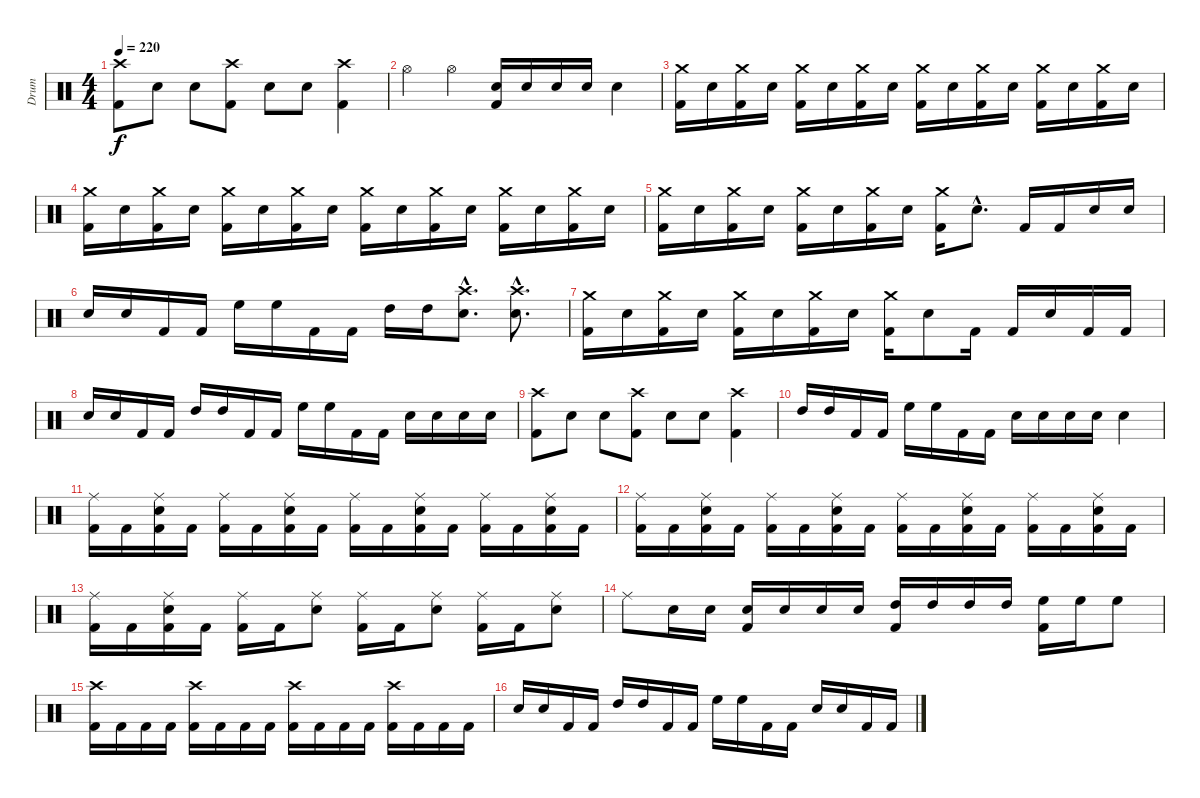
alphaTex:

\track ("Drum" "Drum") {instrument percussion}
\staff {score}
\articulation defaults
\ts (4 4)
\tempo 220
\clef neutral
\ks c
("Crash high (hit)" "Kick (hit) 2").8{dy f} "Electric Snare (hit)".8 "Electric Snare (hit)".8 ("Crash high (hit)" "Kick (hit) 2").8 "Electric Snare (hit)".8 "Electric Snare (hit)".8 ("Crash high (hit)" "Kick (hit) 2").4 |
"Hi-Hat (open)".4 "Hi-Hat (open)".4 ("Electric Snare (hit)" "Kick (hit) 2").16 "Electric Snare (hit)".16 "Electric Snare (hit)".16 "Electric Snare (hit)".16 "Electric Snare (hit)".4 |
("Crash medium (hit)" "Kick (hit) 2").16 "Electric Snare (hit)".16 ("Crash medium (hit)" "Kick (hit) 2").16 "Electric Snare (hit)".16 ("Crash medium (hit)" "Kick (hit) 2").16 "Electric Snare (hit)".16 ("Crash medium (hit)" "Kick (hit) 2").16 "Electric Snare (hit)".16 ("Crash medium (hit)" "Kick (hit) 2").16 "Electric Snare (hit)".16 ("Crash medium (hit)" "Kick (hit) 2").16 "Electric Snare (hit)".16 ("Crash medium (hit)" "Kick (hit) 2").16 "Electric Snare (hit)".16 ("Crash medium (hit)" "Kick (hit) 2").16 "Electric Snare (hit)".16 |
("Crash medium (hit)" "Kick (hit) 2").16 "Electric Snare (hit)".16 ("Crash medium (hit)" "Kick (hit) 2").16 "Electric Snare (hit)".16 ("Crash medium (hit)" "Kick (hit) 2").16 "Electric Snare (hit)".16 ("Crash medium (hit)" "Kick (hit) 2").16 "Electric Snare (hit)".16 ("Crash medium (hit)" "Kick (hit) 2").16 "Electric Snare (hit)".16 ("Crash medium (hit)" "Kick (hit) 2").16 "Electric Snare (hit)".16 ("Crash medium (hit)" "Kick (hit) 2").16 "Electric Snare (hit)".16 ("Crash medium (hit)" "Kick (hit) 2").16 "Electric Snare (hit)".16 |
("Crash medium (hit)" "Kick (hit) 2").16 "Electric Snare (hit)".16 ("Crash medium (hit)" "Kick (hit) 2").16 "Electric Snare (hit)".16 ("Crash medium (hit)" "Kick (hit) 2").16 "Electric Snare (hit)".16 ("Crash medium (hit)" "Kick (hit) 2").16 "Electric Snare (hit)".16 ("Crash medium (hit)" "Kick (hit) 2").16 "Electric Snare (hit)"{hac}.8{d} "Kick (hit) 2".16 "Kick (hit) 2".16 "Electric Snare (hit)".16 "Electric Snare (hit)".16 |
"Electric Snare (hit)".16 "Electric Snare (hit)".16 "Kick (hit) 2".16 "Kick (hit) 2".16 "High Floor Tom (hit)".16 "High Floor Tom (hit)".16 "Kick (hit) 2".16 "Kick (hit) 2".16 "High Tom (hit)".16 "High Tom (hit)".16 ("Crash high (hit)"{hac} "Electric Snare (hit)"{hac}).8{d} ("Crash high (hit)"{hac} "Electric Snare (hit)"{hac}).8{d} |
("Crash medium (hit)" "Kick (hit) 2").16 "Electric Snare (hit)".16 ("Crash medium (hit)" "Kick (hit) 2").16 "Electric Snare (hit)".16 ("Crash medium (hit)" "Kick (hit) 2").16 "Electric Snare (hit)".16 ("Crash medium (hit)" "Kick (hit) 2").16 "Electric Snare (hit)".16 ("Crash medium (hit)" "Kick (hit) 2").16 "Electric Snare (hit)".8 "Kick (hit) 2".16 "Kick (hit) 2".16 "Electric Snare (hit)".16 "Kick (hit) 2".16 "Kick (hit) 2".16 |
"Electric Snare (hit)".16 "Electric Snare (hit)".16 "Kick (hit) 2".16 "Kick (hit) 2".16 "High Tom (hit)".16 "High Tom (hit)".16 "Kick (hit) 2".16 "Kick (hit) 2".16 "High Floor Tom (hit)".16 "High Floor Tom (hit)".16 "Kick (hit) 2".16 "Kick (hit) 2".16 "Electric Snare (hit)".16 "Electric Snare (hit)".16 "Electric Snare (hit)".16 "Electric Snare (hit)".16 |
("Crash high (hit)" "Kick (hit) 2").8 "Electric Snare (hit)".8 "Electric Snare (hit)".8 ("Crash high (hit)" "Kick (hit) 2").8 "Electric Snare (hit)".8 "Electric Snare (hit)".8 ("Crash high (hit)" "Kick (hit) 2").4 |
"High Tom (hit)".16 "High Tom (hit)".16 "Kick (hit) 2".16 "Kick (hit) 2".16 "High Floor Tom (hit)".16 "High Floor Tom (hit)".16 "Kick (hit) 2".16 "Kick (hit) 2".16 "Electric Snare (hit)".16 "Electric Snare (hit)".16 "Electric Snare (hit)".16 "Electric Snare (hit)".16 "Electric Snare (hit)".4 |
("Ride (middle)" "Kick (hit) 2").16 "Kick (hit) 2".16 ("Ride (middle)" "Electric Snare (hit)" "Kick (hit) 2").16 "Kick (hit) 2".16 ("Ride (middle)" "Kick (hit) 2").16 "Kick (hit) 2".16 ("Ride (middle)" "Electric Snare (hit)" "Kick (hit) 2").16 "Kick (hit) 2".16 ("Ride (middle)" "Kick (hit) 2").16 "Kick (hit) 2".16 ("Ride (middle)" "Electric Snare (hit)" "Kick (hit) 2").16 "Kick (hit) 2".16 ("Ride (middle)" "Kick (hit) 2").16 "Kick (hit) 2".16 ("Ride (middle)" "Electric Snare (hit)" "Kick (hit) 2").16 "Kick (hit) 2".16 |
("Ride (middle)" "Kick (hit) 2").16 "Kick (hit) 2".16 ("Ride (middle)" "Electric Snare (hit)" "Kick (hit) 2").16 "Kick (hit) 2".16 ("Ride (middle)" "Kick (hit) 2").16 "Kick (hit) 2".16 ("Ride (middle)" "Electric Snare (hit)" "Kick (hit) 2").16 "Kick (hit) 2".16 ("Ride (middle)" "Kick (hit) 2").16 "Kick (hit) 2".16 ("Ride (middle)" "Electric Snare (hit)" "Kick (hit) 2").16 "Kick (hit) 2".16 ("Ride (middle)" "Kick (hit) 2").16 "Kick (hit) 2".16 ("Ride (middle)" "Electric Snare (hit)" "Kick (hit) 2").16 "Kick (hit) 2".16 |
("Ride (middle)" "Kick (hit) 2").16 "Kick (hit) 2".16 ("Ride (middle)" "Electric Snare (hit)" "Kick (hit) 2").16 "Kick (hit) 2".16 ("Ride (middle)" "Kick (hit) 2").16 "Kick (hit) 2".16 ("Ride (middle)" "Electric Snare (hit)").8 ("Ride (middle)" "Kick (hit) 2").16 "Kick (hit) 2".16 ("Ride (middle)" "Electric Snare (hit)").8 ("Ride (middle)" "Kick (hit) 2").16 "Kick (hit) 2".16 ("Ride (middle)" "Electric Snare (hit)").8 |
"Ride (middle)".8 "Electric Snare (hit)".16 "Electric Snare (hit)".16 ("Electric Snare (hit)" "Kick (hit) 2").16 "Electric Snare (hit)".16 "Electric Snare (hit)".16 "Electric Snare (hit)".16 ("High Tom (hit)" "Kick (hit) 2").16 "High Tom (hit)".16 "High Tom (hit)".16 "High Tom (hit)".16 ("High Floor Tom (hit)" "Kick (hit) 2").16 "High Floor Tom (hit)".16 "High Floor Tom (hit)".8 |
("Crash high (hit)" "Kick (hit) 2").16 "Kick (hit) 2".16 "Kick (hit) 2".16 "Kick (hit) 2".16 ("Crash high (hit)" "Kick (hit) 2").16 "Kick (hit) 2".16 "Kick (hit) 2".16 "Kick (hit) 2".16 ("Crash high (hit)" "Kick (hit) 2").16 "Kick (hit) 2".16 "Kick (hit) 2".16 "Kick (hit) 2".16 ("Crash high (hit)" "Kick (hit) 2").16 "Kick (hit) 2".16 "Kick (hit) 2".16 "Kick (hit) 2".16 |
"Electric Snare (hit)".16 "Electric Snare (hit)".16 "Kick (hit) 2".16 "Kick (hit) 2".16 "High Tom (hit)".16 "High Tom (hit)".16 "Kick (hit) 2".16 "Kick (hit) 2".16 "High Floor Tom (hit)".16 "High Floor Tom (hit)".16 "Kick (hit) 2".16 "Kick (hit) 2".16 "Electric Snare (hit)".16 "Electric Snare (hit)".16 "Kick (hit) 2".16 "Kick (hit) 2".16
